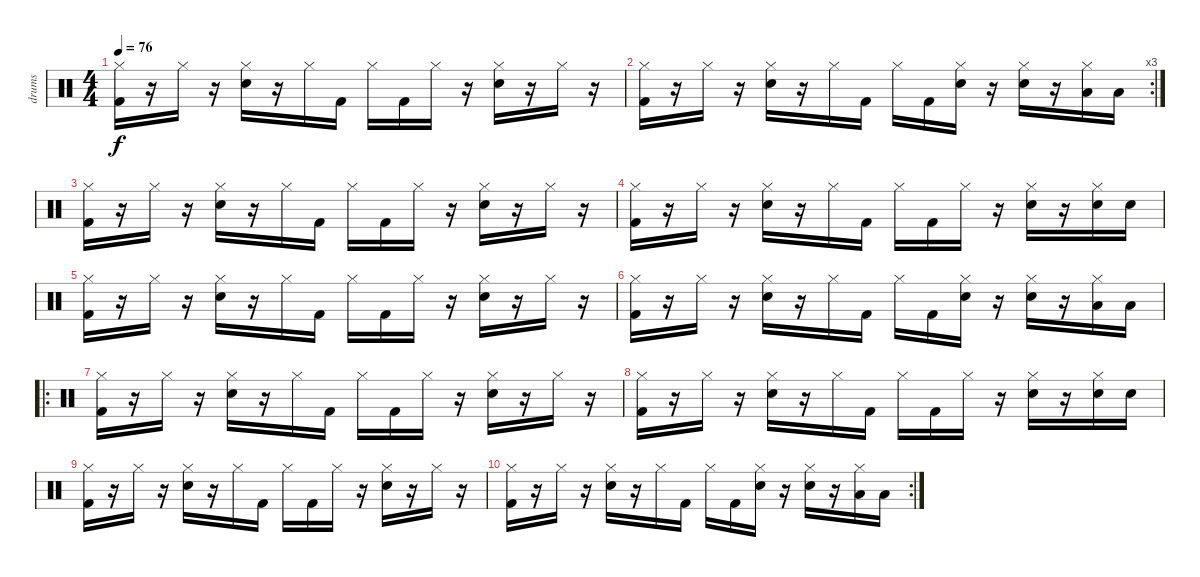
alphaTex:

\track ("drums" "drums") {instrument percussion}
\staff {score}
\articulation defaults
\ts (4 4)
\tempo 76
\clef neutral
\ks c
("Kick (hit) 2" "Hi-Hat (closed)").16{dy f} r.16 "Hi-Hat (closed)".16 r.16 ("Snare (hit) 2" "Hi-Hat (closed)").16 r.16 "Hi-Hat (closed)".16 "Kick (hit) 2".16 "Hi-Hat (closed)".16 "Kick (hit) 2".16 "Hi-Hat (closed)".16 r.16 ("Snare (hit) 2" "Hi-Hat (closed)").16 r.16 "Hi-Hat (closed)".16 r.16 |
\rc 3
("Kick (hit) 2" "Hi-Hat (closed)").16 r.16 "Hi-Hat (closed)".16 r.16 ("Snare (hit) 2" "Hi-Hat (closed)").16 r.16 "Hi-Hat (closed)".16 "Kick (hit) 2".16 "Hi-Hat (closed)".16 "Kick (hit) 2".16 ("Snare (hit) 2" "Hi-Hat (closed)").16 r.16 ("Snare (hit) 2" "Hi-Hat (closed)").16 r.16 ("Low Tom (hit)" "Hi-Hat (closed)").16 "Low Tom (hit)".16 |
("Kick (hit) 2" "Hi-Hat (closed)").16 r.16 "Hi-Hat (closed)".16 r.16 ("Snare (hit) 2" "Hi-Hat (closed)").16 r.16 "Hi-Hat (closed)".16 "Kick (hit) 2".16 "Hi-Hat (closed)".16 "Kick (hit) 2".16 "Hi-Hat (closed)".16 r.16 ("Snare (hit) 2" "Hi-Hat (closed)").16 r.16 "Hi-Hat (closed)".16 r.16 |
("Kick (hit) 2" "Hi-Hat (closed)").16 r.16 "Hi-Hat (closed)".16 r.16 ("Snare (hit) 2" "Hi-Hat (closed)").16 r.16 "Hi-Hat (closed)".16 "Kick (hit) 2".16 "Hi-Hat (closed)".16 "Kick (hit) 2".16 "Hi-Hat (closed)".16 r.16 ("Snare (hit) 2" "Hi-Hat (closed)").16 r.16 ("Snare (hit) 2" "Hi-Hat (closed)").16 "Snare (hit) 2".16 |
("Kick (hit) 2" "Hi-Hat (closed)").16 r.16 "Hi-Hat (closed)".16 r.16 ("Snare (hit) 2" "Hi-Hat (closed)").16 r.16 "Hi-Hat (closed)".16 "Kick (hit) 2".16 "Hi-Hat (closed)".16 "Kick (hit) 2".16 "Hi-Hat (closed)".16 r.16 ("Snare (hit) 2" "Hi-Hat (closed)").16 r.16 "Hi-Hat (closed)".16 r.16 |
("Kick (hit) 2" "Hi-Hat (closed)").16 r.16 "Hi-Hat (closed)".16 r.16 ("Snare (hit) 2" "Hi-Hat (closed)").16 r.16 "Hi-Hat (closed)".16 "Kick (hit) 2".16 "Hi-Hat (closed)".16 "Kick (hit) 2".16 ("Snare (hit) 2" "Hi-Hat (closed)").16 r.16 ("Snare (hit) 2" "Hi-Hat (closed)").16 r.16 ("Low Tom (hit)" "Hi-Hat (closed)").16 "Low Tom (hit)".16 |
\ro
("Kick (hit) 2" "Hi-Hat (closed)").16 r.16 "Hi-Hat (closed)".16 r.16 ("Snare (hit) 2" "Hi-Hat (closed)").16 r.16 "Hi-Hat (closed)".16 "Kick (hit) 2".16 "Hi-Hat (closed)".16 "Kick (hit) 2".16 "Hi-Hat (closed)".16 r.16 ("Snare (hit) 2" "Hi-Hat (closed)").16 r.16 "Hi-Hat (closed)".16 r.16 |
("Kick (hit) 2" "Hi-Hat (closed)").16 r.16 "Hi-Hat (closed)".16 r.16 ("Snare (hit) 2" "Hi-Hat (closed)").16 r.16 "Hi-Hat (closed)".16 "Kick (hit) 2".16 "Hi-Hat (closed)".16 "Kick (hit) 2".16 "Hi-Hat (closed)".16 r.16 ("Snare (hit) 2" "Hi-Hat (closed)").16 r.16 ("Snare (hit) 2" "Hi-Hat (closed)").16 "Snare (hit) 2".16 |
("Kick (hit) 2" "Hi-Hat (closed)").16 r.16 "Hi-Hat (closed)".16 r.16 ("Snare (hit) 2" "Hi-Hat (closed)").16 r.16 "Hi-Hat (closed)".16 "Kick (hit) 2".16 "Hi-Hat (closed)".16 "Kick (hit) 2".16 "Hi-Hat (closed)".16 r.16 ("Snare (hit) 2" "Hi-Hat (closed)").16 r.16 "Hi-Hat (closed)".16 r.16 |
\rc 2
("Kick (hit) 2" "Hi-Hat (closed)").16 r.16 "Hi-Hat (closed)".16 r.16 ("Snare (hit) 2" "Hi-Hat (closed)").16 r.16 "Hi-Hat (closed)".16 "Kick (hit) 2".16 "Hi-Hat (closed)".16 "Kick (hit) 2".16 ("Snare (hit) 2" "Hi-Hat (closed)").16 r.16 ("Snare (hit) 2" "Hi-Hat (closed)").16 r.16 ("Low Tom (hit)" "Hi-Hat (closed)").16 "Low Tom (hit)".16
